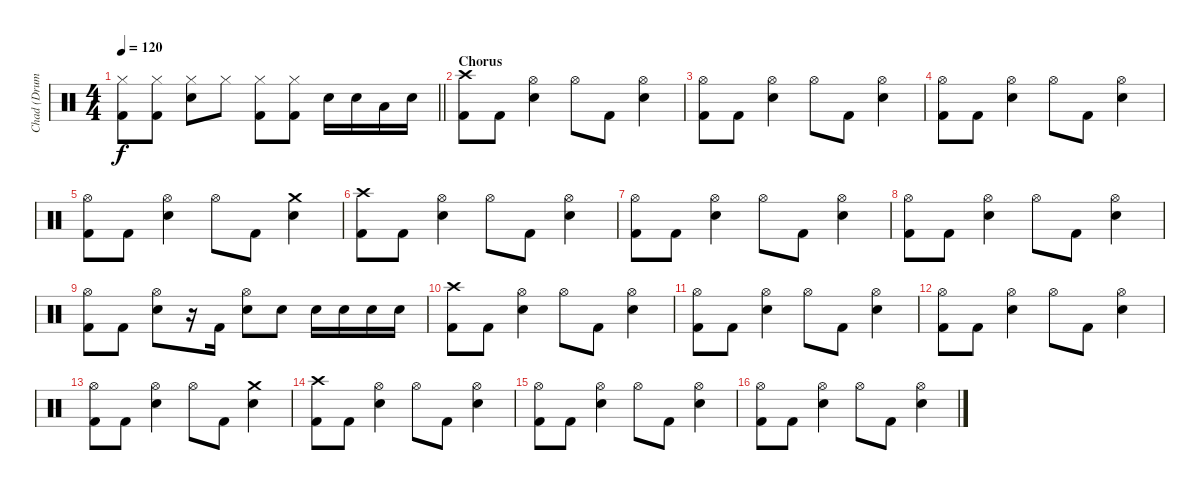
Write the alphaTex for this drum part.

\track ("Chad (Drums)" "Chad (Drum") {instrument percussion}
\staff {score}
\articulation defaults
\ts (4 4)
\tempo 120
\clef neutral
\barLineRight lightlight
\ks c
("Hi-Hat (closed)" "Kick (hit) 2").8{dy f} ("Hi-Hat (closed)" "Kick (hit) 2").8 ("Hi-Hat (closed)" "Electric Snare (hit)").8 "Hi-Hat (closed)".8 ("Hi-Hat (closed)" "Kick (hit) 2").8 ("Hi-Hat (closed)" "Kick (hit) 2").8 "Electric Snare (hit)".16 "Electric Snare (hit)".16 "Low Floor Tom (hit)".16 "Electric Snare (hit)".16 |
\section ("" "Chorus")
("Crash high (hit)" "Kick (hit) 2").8 "Kick (hit) 2".8 ("Hi-Hat (open)" "Electric Snare (hit)").4 "Hi-Hat (open)".8 "Kick (hit) 2".8 ("Hi-Hat (open)" "Electric Snare (hit)").4 |
("Hi-Hat (open)" "Kick (hit) 2").8 "Kick (hit) 2".8 ("Hi-Hat (open)" "Electric Snare (hit)").4 "Hi-Hat (open)".8 "Kick (hit) 2".8 ("Hi-Hat (open)" "Electric Snare (hit)").4 |
("Hi-Hat (open)" "Kick (hit) 2").8 "Kick (hit) 2".8 ("Hi-Hat (open)" "Electric Snare (hit)").4 "Hi-Hat (open)".8 "Kick (hit) 2".8 ("Hi-Hat (open)" "Electric Snare (hit)").4 |
("Hi-Hat (open)" "Kick (hit) 2").8 "Kick (hit) 2".8 ("Hi-Hat (open)" "Electric Snare (hit)").4 "Hi-Hat (open)".8 "Kick (hit) 2".8 ("Crash medium (hit)" "Electric Snare (hit)").4 |
("Crash high (hit)" "Kick (hit) 2").8 "Kick (hit) 2".8 ("Hi-Hat (open)" "Electric Snare (hit)").4 "Hi-Hat (open)".8 "Kick (hit) 2".8 ("Hi-Hat (open)" "Electric Snare (hit)").4 |
("Hi-Hat (open)" "Kick (hit) 2").8 "Kick (hit) 2".8 ("Hi-Hat (open)" "Electric Snare (hit)").4 "Hi-Hat (open)".8 "Kick (hit) 2".8 ("Hi-Hat (open)" "Electric Snare (hit)").4 |
("Hi-Hat (open)" "Kick (hit) 2").8 "Kick (hit) 2".8 ("Hi-Hat (open)" "Electric Snare (hit)").4 "Hi-Hat (open)".8 "Kick (hit) 2".8 ("Hi-Hat (open)" "Electric Snare (hit)").4 |
("Hi-Hat (open)" "Kick (hit) 2").8 "Kick (hit) 2".8 ("Hi-Hat (open)" "Electric Snare (hit)").8 r.16 "Kick (hit) 2".16 ("Hi-Hat (open)" "Electric Snare (hit)").8 "Electric Snare (hit)".8 "Electric Snare (hit)".16 "Electric Snare (hit)".16 "Electric Snare (hit)".16 "Electric Snare (hit)".16 |
("Crash high (hit)" "Kick (hit) 2").8 "Kick (hit) 2".8 ("Hi-Hat (open)" "Electric Snare (hit)").4 "Hi-Hat (open)".8 "Kick (hit) 2".8 ("Hi-Hat (open)" "Electric Snare (hit)").4 |
("Hi-Hat (open)" "Kick (hit) 2").8 "Kick (hit) 2".8 ("Hi-Hat (open)" "Electric Snare (hit)").4 "Hi-Hat (open)".8 "Kick (hit) 2".8 ("Hi-Hat (open)" "Electric Snare (hit)").4 |
("Hi-Hat (open)" "Kick (hit) 2").8 "Kick (hit) 2".8 ("Hi-Hat (open)" "Electric Snare (hit)").4 "Hi-Hat (open)".8 "Kick (hit) 2".8 ("Hi-Hat (open)" "Electric Snare (hit)").4 |
("Hi-Hat (open)" "Kick (hit) 2").8 "Kick (hit) 2".8 ("Hi-Hat (open)" "Electric Snare (hit)").4 "Hi-Hat (open)".8 "Kick (hit) 2".8 ("Crash medium (hit)" "Electric Snare (hit)").4 |
("Crash high (hit)" "Kick (hit) 2").8 "Kick (hit) 2".8 ("Hi-Hat (open)" "Electric Snare (hit)").4 "Hi-Hat (open)".8 "Kick (hit) 2".8 ("Hi-Hat (open)" "Electric Snare (hit)").4 |
("Hi-Hat (open)" "Kick (hit) 2").8 "Kick (hit) 2".8 ("Hi-Hat (open)" "Electric Snare (hit)").4 "Hi-Hat (open)".8 "Kick (hit) 2".8 ("Hi-Hat (open)" "Electric Snare (hit)").4 |
("Hi-Hat (open)" "Kick (hit) 2").8 "Kick (hit) 2".8 ("Hi-Hat (open)" "Electric Snare (hit)").4 "Hi-Hat (open)".8 "Kick (hit) 2".8 ("Hi-Hat (open)" "Electric Snare (hit)").4
